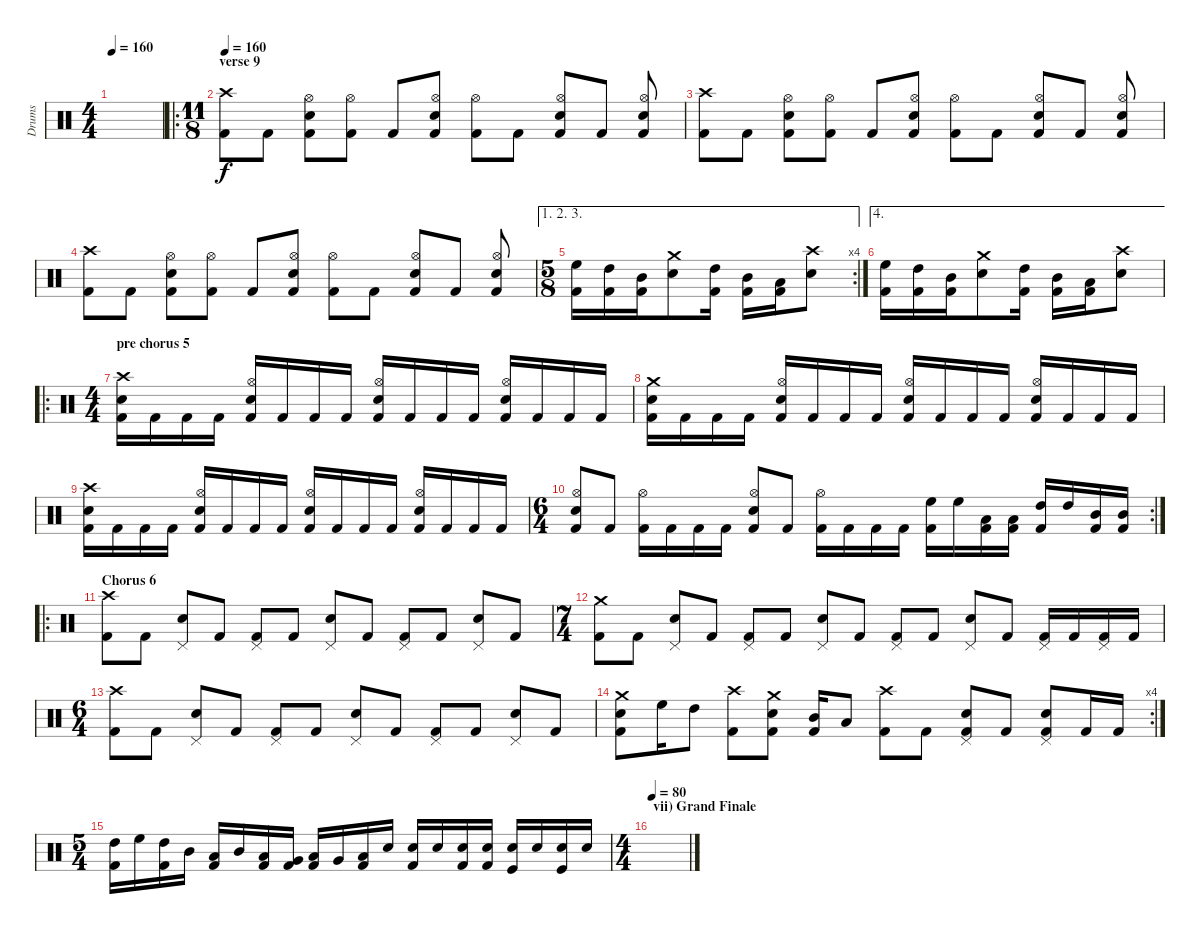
\track ("Drums" "Drums") {instrument percussion}
\staff {score}
\articulation defaults
\ts (4 4)
\tempo 160
\clef neutral
\ks c
|
\ro
\ts (11 8)
\section ("" "verse 9")
\tempo 160
("Crash high (hit)" "Kick (hit) 2").8 "Kick (hit) 2".8 ("Hi-Hat (open)" "Snare (hit) 2" "Kick (hit) 2").8 ("Hi-Hat (open)" "Kick (hit) 2").8 "Kick (hit) 2".8 ("Hi-Hat (open)" "Snare (hit) 2" "Kick (hit) 2").8 ("Hi-Hat (open)" "Kick (hit) 2").8 "Kick (hit) 2".8 ("Hi-Hat (open)" "Snare (hit) 2" "Kick (hit) 2").8 "Kick (hit) 2".8 ("Hi-Hat (open)" "Snare (hit) 2" "Kick (hit) 2").8 |
("Crash high (hit)" "Kick (hit) 2").8 "Kick (hit) 2".8 ("Hi-Hat (open)" "Snare (hit) 2" "Kick (hit) 2").8 ("Hi-Hat (open)" "Kick (hit) 2").8 "Kick (hit) 2".8 ("Hi-Hat (open)" "Snare (hit) 2" "Kick (hit) 2").8 ("Hi-Hat (open)" "Kick (hit) 2").8 "Kick (hit) 2".8 ("Hi-Hat (open)" "Snare (hit) 2" "Kick (hit) 2").8 "Kick (hit) 2".8 ("Hi-Hat (open)" "Snare (hit) 2" "Kick (hit) 2").8 |
("Crash high (hit)" "Kick (hit) 2").8 "Kick (hit) 2".8 ("Hi-Hat (open)" "Snare (hit) 2" "Kick (hit) 2").8 ("Hi-Hat (open)" "Kick (hit) 2").8 "Kick (hit) 2".8 ("Hi-Hat (open)" "Snare (hit) 2" "Kick (hit) 2").8 ("Hi-Hat (open)" "Kick (hit) 2").8 "Kick (hit) 2".8 ("Hi-Hat (open)" "Snare (hit) 2" "Kick (hit) 2").8 "Kick (hit) 2".8 ("Hi-Hat (open)" "Snare (hit) 2" "Kick (hit) 2").8 |
\ae (1 2 3)
\rc 4
\ts (5 8)
("High Floor Tom (hit)" "Kick (hit) 2").16 ("High Tom (hit)" "Kick (hit) 2").16 ("Mid Tom (hit)" "Kick (hit) 2").16 ("Crash medium (hit)" "Snare (hit) 2").8 ("High Tom (hit)" "Kick (hit) 2").16 ("Mid Tom (hit)" "Kick (hit) 2").16 ("Low Tom (hit)" "Kick (hit) 2").16 ("Crash high (hit)" "Snare (hit) 2").8 |
\ae 4
("High Floor Tom (hit)" "Kick (hit) 2").16 ("High Tom (hit)" "Kick (hit) 2").16 ("Mid Tom (hit)" "Kick (hit) 2").16 ("Crash medium (hit)" "Snare (hit) 2").8 ("High Tom (hit)" "Kick (hit) 2").16 ("Mid Tom (hit)" "Kick (hit) 2").16 ("Low Tom (hit)" "Kick (hit) 2").16 ("Crash high (hit)" "Snare (hit) 2").8 |
\ro
\ts (4 4)
\section ("" "pre chorus 5")
("Crash high (hit)" "Snare (hit) 2" "Kick (hit) 2").16 "Kick (hit) 2".16 "Kick (hit) 2".16 "Kick (hit) 2".16 ("Hi-Hat (open)" "Snare (hit) 2" "Kick (hit) 2").16 "Kick (hit) 2".16 "Kick (hit) 2".16 "Kick (hit) 2".16 ("Hi-Hat (open)" "Snare (hit) 2" "Kick (hit) 2").16 "Kick (hit) 2".16 "Kick (hit) 2".16 "Kick (hit) 2".16 ("Hi-Hat (open)" "Snare (hit) 2" "Kick (hit) 2").16 "Kick (hit) 2".16 "Kick (hit) 2".16 "Kick (hit) 2".16 |
("Crash medium (hit)" "Snare (hit) 2" "Kick (hit) 2").16 "Kick (hit) 2".16 "Kick (hit) 2".16 "Kick (hit) 2".16 ("Hi-Hat (open)" "Snare (hit) 2" "Kick (hit) 2").16 "Kick (hit) 2".16 "Kick (hit) 2".16 "Kick (hit) 2".16 ("Hi-Hat (open)" "Snare (hit) 2" "Kick (hit) 2").16 "Kick (hit) 2".16 "Kick (hit) 2".16 "Kick (hit) 2".16 ("Hi-Hat (open)" "Snare (hit) 2" "Kick (hit) 2").16 "Kick (hit) 2".16 "Kick (hit) 2".16 "Kick (hit) 2".16 |
("Crash high (hit)" "Snare (hit) 2" "Kick (hit) 2").16 "Kick (hit) 2".16 "Kick (hit) 2".16 "Kick (hit) 2".16 ("Hi-Hat (open)" "Snare (hit) 2" "Kick (hit) 2").16 "Kick (hit) 2".16 "Kick (hit) 2".16 "Kick (hit) 2".16 ("Hi-Hat (open)" "Snare (hit) 2" "Kick (hit) 2").16 "Kick (hit) 2".16 "Kick (hit) 2".16 "Kick (hit) 2".16 ("Hi-Hat (open)" "Snare (hit) 2" "Kick (hit) 2").16 "Kick (hit) 2".16 "Kick (hit) 2".16 "Kick (hit) 2".16 |
\rc 2
\ts (6 4)
("Hi-Hat (open)" "Snare (hit) 2" "Kick (hit) 2").8 "Kick (hit) 2".8 ("Hi-Hat (open)" "Kick (hit) 2").16 "Kick (hit) 2".16 "Kick (hit) 2".16 "Kick (hit) 2".16 ("Hi-Hat (open)" "Snare (hit) 2" "Kick (hit) 2").8 "Kick (hit) 2".8 ("Hi-Hat (open)" "Kick (hit) 2").16 "Kick (hit) 2".16 "Kick (hit) 2".16 "Kick (hit) 2".16 ("High Floor Tom (hit)" "Kick (hit) 2").16 "High Floor Tom (hit)".16 ("Low Tom (hit)" "Kick (hit) 2").16 ("Low Tom (hit)" "Kick (hit) 2").16 ("High Tom (hit)" "Kick (hit) 2").16 "High Tom (hit)".16 ("Mid Tom (hit)" "Kick (hit) 2").16 ("Mid Tom (hit)" "Kick (hit) 2").16 |
\ro
\section ("" "Chorus 6")
("Crash high (hit)" "Kick (hit) 2").8 "Kick (hit) 2".8 ("Pedal Hi-Hat (hit)" "Snare (hit) 2").8 "Kick (hit) 2".8 ("Pedal Hi-Hat (hit)" "Kick (hit) 2").8 "Kick (hit) 2".8 ("Pedal Hi-Hat (hit)" "Snare (hit) 2").8 "Kick (hit) 2".8 ("Pedal Hi-Hat (hit)" "Kick (hit) 2").8 "Kick (hit) 2".8 ("Pedal Hi-Hat (hit)" "Snare (hit) 2").8 "Kick (hit) 2".8 |
\ts (7 4)
("Crash medium (hit)" "Kick (hit) 2").8 "Kick (hit) 2".8 ("Pedal Hi-Hat (hit)" "Snare (hit) 2").8 "Kick (hit) 2".8 ("Pedal Hi-Hat (hit)" "Kick (hit) 2").8 "Kick (hit) 2".8 ("Pedal Hi-Hat (hit)" "Snare (hit) 2").8 "Kick (hit) 2".8 ("Pedal Hi-Hat (hit)" "Kick (hit) 2").8 "Kick (hit) 2".8 ("Pedal Hi-Hat (hit)" "Snare (hit) 2").8 "Kick (hit) 2".8 ("Pedal Hi-Hat (hit)" "Kick (hit) 2").16 "Kick (hit) 2".16 ("Pedal Hi-Hat (hit)" "Kick (hit) 2").16 "Kick (hit) 2".16 |
\ts (6 4)
("Crash high (hit)" "Kick (hit) 2").8 "Kick (hit) 2".8 ("Pedal Hi-Hat (hit)" "Snare (hit) 2").8 "Kick (hit) 2".8 ("Pedal Hi-Hat (hit)" "Kick (hit) 2").8 "Kick (hit) 2".8 ("Pedal Hi-Hat (hit)" "Snare (hit) 2").8 "Kick (hit) 2".8 ("Pedal Hi-Hat (hit)" "Kick (hit) 2").8 "Kick (hit) 2".8 ("Pedal Hi-Hat (hit)" "Snare (hit) 2").8 "Kick (hit) 2".8 |
\rc 4
("Crash medium (hit)" "Snare (hit) 2" "Kick (hit) 2").8 "High Floor Tom (hit)".16 "High Tom (hit)".8 ("Crash high (hit)" "Kick (hit) 2").8 ("Crash medium (hit)" "Snare (hit) 2" "Kick (hit) 2").8 ("Mid Tom (hit)" "Kick (hit) 2").16 "Low Tom (hit)".8 ("Crash high (hit)" "Kick (hit) 2").8 "Kick (hit) 2".8 ("Pedal Hi-Hat (hit)" "Snare (hit) 2" "Kick (hit) 2").8 "Kick (hit) 2".8 ("Pedal Hi-Hat (hit)" "Snare (hit) 2" "Kick (hit) 2").8 "Kick (hit) 2".16 "Kick (hit) 2".16 |
\ts (5 4)
("High Tom (hit)" "Kick (hit) 2").16 "High Floor Tom (hit)".16 ("High Tom (hit)" "Kick (hit) 2").16 "Mid Tom (hit)".16 ("Low Tom (hit)" "Kick (hit) 2").16 "Mid Tom (hit)".16 ("Low Tom (hit)" "Kick (hit) 2").16 ("Very Low Tom (hit)" "Kick (hit) 2").16 ("Low Floor Tom (hit)" "Kick (hit) 2").16 "Very Low Tom (hit)".16 ("Low Floor Tom (hit)" "Kick (hit) 2").16 "Electric Snare (hit)".16 ("Snare (hit) 2" "Kick (hit) 2").16 "Snare (hit) 2".16 ("Snare (hit) 2" "Kick (hit) 2").16 ("Snare (hit) 2" "Kick (hit) 2").16 ("Snare (hit) 2" "Kick (hit)").16 "Snare (hit) 2".16 ("Snare (hit) 2" "Kick (hit)").16 "Snare (hit) 2".16 |
\ts (4 4)
\section ("" "vii) Grand Finale")
\tempo 80
